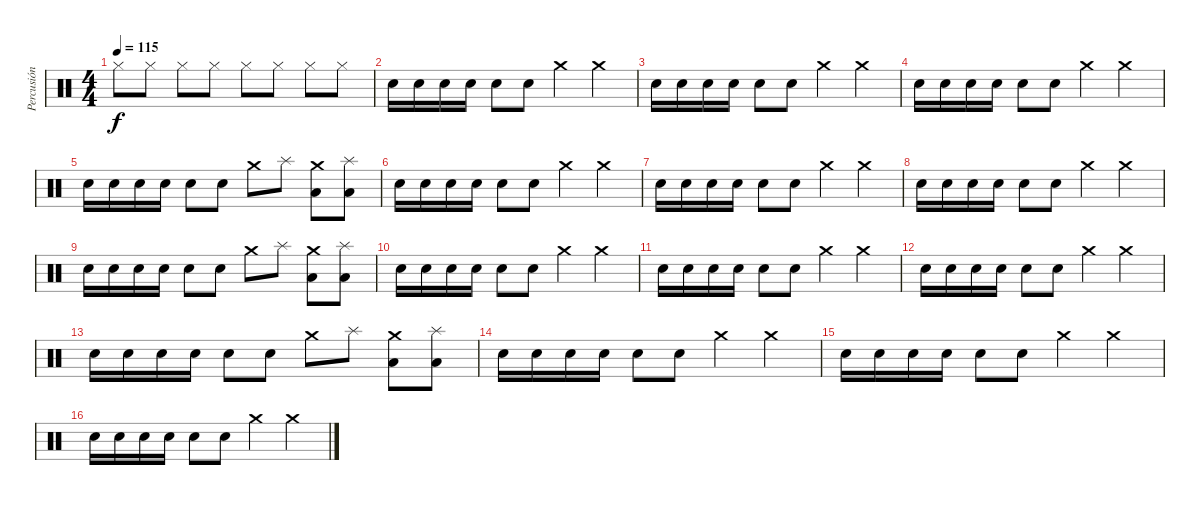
\track ("Percusión" "Percusión") {instrument percussion}
\staff {score}
\articulation defaults
\ts (4 4)
\tempo 115
\clef neutral
\ks c "Hi-Hat (closed)".8{dy f} "Hi-Hat (closed)".8 "Hi-Hat (closed)".8 "Hi-Hat (closed)".8 "Hi-Hat (closed)".8 "Hi-Hat (closed)".8 "Hi-Hat (closed)".8 "Hi-Hat (closed)".8
|
"Snare (hit) 2".16 "Snare (hit) 2".16 "Snare (hit) 2".16 "Snare (hit) 2".16 "Snare (hit) 2".8 "Snare (hit) 2".8 "Crash medium (hit)".4 "Crash medium (hit)".4 |
"Snare (hit) 2".16 "Snare (hit) 2".16 "Snare (hit) 2".16 "Snare (hit) 2".16 "Snare (hit) 2".8 "Snare (hit) 2".8 "Crash medium (hit)".4 "Crash medium (hit)".4 |
"Snare (hit) 2".16 "Snare (hit) 2".16 "Snare (hit) 2".16 "Snare (hit) 2".16 "Snare (hit) 2".8 "Snare (hit) 2".8 "Crash medium (hit)".4 "Crash medium (hit)".4 |
"Snare (hit) 2".16 "Snare (hit) 2".16 "Snare (hit) 2".16 "Snare (hit) 2".16 "Snare (hit) 2".8 "Snare (hit) 2".8 "Crash medium (hit)".8 "Splash (hit)".8 ("Crash medium (hit)" "Low Floor Tom (hit)").8 ("Splash (hit)" "Low Floor Tom (hit)").8 |
"Snare (hit) 2".16 "Snare (hit) 2".16 "Snare (hit) 2".16 "Snare (hit) 2".16 "Snare (hit) 2".8 "Snare (hit) 2".8 "Crash medium (hit)".4 "Crash medium (hit)".4 |
"Snare (hit) 2".16 "Snare (hit) 2".16 "Snare (hit) 2".16 "Snare (hit) 2".16 "Snare (hit) 2".8 "Snare (hit) 2".8 "Crash medium (hit)".4 "Crash medium (hit)".4 |
"Snare (hit) 2".16 "Snare (hit) 2".16 "Snare (hit) 2".16 "Snare (hit) 2".16 "Snare (hit) 2".8 "Snare (hit) 2".8 "Crash medium (hit)".4 "Crash medium (hit)".4 |
"Snare (hit) 2".16 "Snare (hit) 2".16 "Snare (hit) 2".16 "Snare (hit) 2".16 "Snare (hit) 2".8 "Snare (hit) 2".8 "Crash medium (hit)".8 "Splash (hit)".8 ("Crash medium (hit)" "Low Floor Tom (hit)").8 ("Splash (hit)" "Low Floor Tom (hit)").8 |
"Snare (hit) 2".16 "Snare (hit) 2".16 "Snare (hit) 2".16 "Snare (hit) 2".16 "Snare (hit) 2".8 "Snare (hit) 2".8 "Crash medium (hit)".4 "Crash medium (hit)".4 |
"Snare (hit) 2".16 "Snare (hit) 2".16 "Snare (hit) 2".16 "Snare (hit) 2".16 "Snare (hit) 2".8 "Snare (hit) 2".8 "Crash medium (hit)".4 "Crash medium (hit)".4 |
"Snare (hit) 2".16 "Snare (hit) 2".16 "Snare (hit) 2".16 "Snare (hit) 2".16 "Snare (hit) 2".8 "Snare (hit) 2".8 "Crash medium (hit)".4 "Crash medium (hit)".4 |
"Snare (hit) 2".16 "Snare (hit) 2".16 "Snare (hit) 2".16 "Snare (hit) 2".16 "Snare (hit) 2".8 "Snare (hit) 2".8 "Crash medium (hit)".8 "Splash (hit)".8 ("Crash medium (hit)" "Low Floor Tom (hit)").8 ("Splash (hit)" "Low Floor Tom (hit)").8 |
"Snare (hit) 2".16 "Snare (hit) 2".16 "Snare (hit) 2".16 "Snare (hit) 2".16 "Snare (hit) 2".8 "Snare (hit) 2".8 "Crash medium (hit)".4 "Crash medium (hit)".4 |
"Snare (hit) 2".16 "Snare (hit) 2".16 "Snare (hit) 2".16 "Snare (hit) 2".16 "Snare (hit) 2".8 "Snare (hit) 2".8 "Crash medium (hit)".4 "Crash medium (hit)".4 |
"Snare (hit) 2".16 "Snare (hit) 2".16 "Snare (hit) 2".16 "Snare (hit) 2".16 "Snare (hit) 2".8 "Snare (hit) 2".8 "Crash medium (hit)".4 "Crash medium (hit)".4
